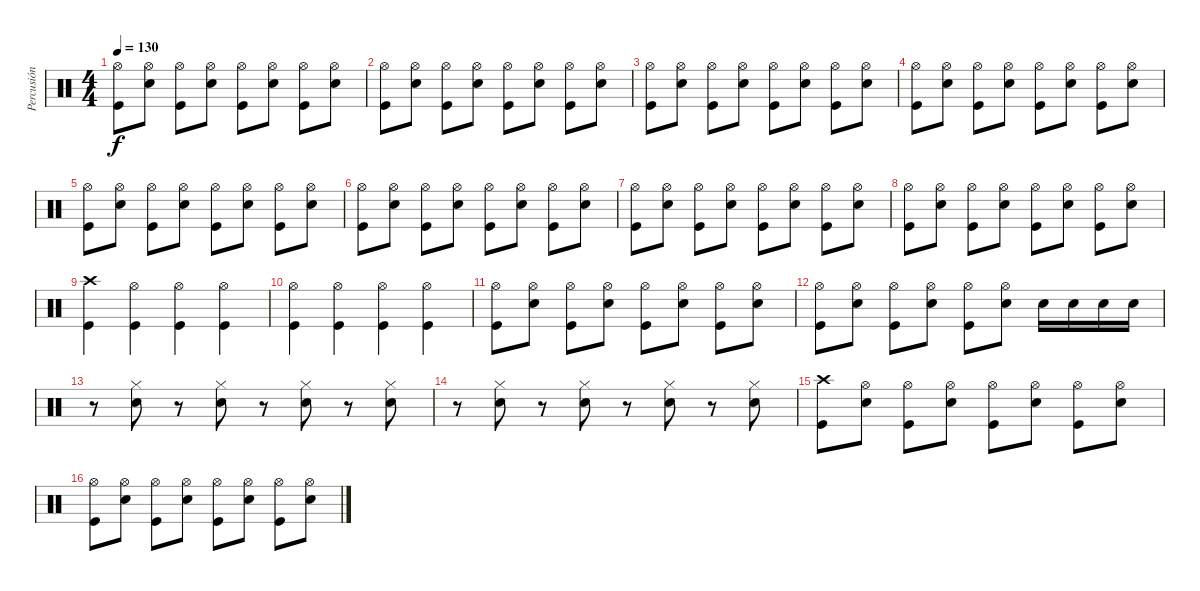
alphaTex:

\track ("Percusión" "Percusión") {instrument percussion}
\staff {score}
\articulation defaults
\ts (4 4)
\tempo 130
\clef neutral
\ks c
("Hi-Hat (open)" "Kick (hit)").8{dy f} ("Hi-Hat (open)" "Electric Snare (hit)").8 ("Hi-Hat (open)" "Kick (hit)").8 ("Hi-Hat (open)" "Electric Snare (hit)").8 ("Hi-Hat (open)" "Kick (hit)").8 ("Hi-Hat (open)" "Electric Snare (hit)").8 ("Hi-Hat (open)" "Kick (hit)").8 ("Hi-Hat (open)" "Electric Snare (hit)").8 |
("Hi-Hat (open)" "Kick (hit)").8 ("Hi-Hat (open)" "Electric Snare (hit)").8 ("Hi-Hat (open)" "Kick (hit)").8 ("Hi-Hat (open)" "Electric Snare (hit)").8 ("Hi-Hat (open)" "Kick (hit)").8 ("Hi-Hat (open)" "Electric Snare (hit)").8 ("Hi-Hat (open)" "Kick (hit)").8 ("Hi-Hat (open)" "Electric Snare (hit)").8 |
("Hi-Hat (open)" "Kick (hit)").8 ("Hi-Hat (open)" "Electric Snare (hit)").8 ("Hi-Hat (open)" "Kick (hit)").8 ("Hi-Hat (open)" "Electric Snare (hit)").8 ("Hi-Hat (open)" "Kick (hit)").8 ("Hi-Hat (open)" "Electric Snare (hit)").8 ("Hi-Hat (open)" "Kick (hit)").8 ("Hi-Hat (open)" "Electric Snare (hit)").8 |
("Hi-Hat (open)" "Kick (hit)").8 ("Hi-Hat (open)" "Electric Snare (hit)").8 ("Hi-Hat (open)" "Kick (hit)").8 ("Hi-Hat (open)" "Electric Snare (hit)").8 ("Hi-Hat (open)" "Kick (hit)").8 ("Hi-Hat (open)" "Electric Snare (hit)").8 ("Hi-Hat (open)" "Kick (hit)").8 ("Hi-Hat (open)" "Electric Snare (hit)").8 |
("Hi-Hat (open)" "Kick (hit)").8 ("Hi-Hat (open)" "Electric Snare (hit)").8 ("Hi-Hat (open)" "Kick (hit)").8 ("Hi-Hat (open)" "Electric Snare (hit)").8 ("Hi-Hat (open)" "Kick (hit)").8 ("Hi-Hat (open)" "Electric Snare (hit)").8 ("Hi-Hat (open)" "Kick (hit)").8 ("Hi-Hat (open)" "Electric Snare (hit)").8 |
("Hi-Hat (open)" "Kick (hit)").8 ("Hi-Hat (open)" "Electric Snare (hit)").8 ("Hi-Hat (open)" "Kick (hit)").8 ("Hi-Hat (open)" "Electric Snare (hit)").8 ("Hi-Hat (open)" "Kick (hit)").8 ("Hi-Hat (open)" "Electric Snare (hit)").8 ("Hi-Hat (open)" "Kick (hit)").8 ("Hi-Hat (open)" "Electric Snare (hit)").8 |
("Hi-Hat (open)" "Kick (hit)").8 ("Hi-Hat (open)" "Electric Snare (hit)").8 ("Hi-Hat (open)" "Kick (hit)").8 ("Hi-Hat (open)" "Electric Snare (hit)").8 ("Hi-Hat (open)" "Kick (hit)").8 ("Hi-Hat (open)" "Electric Snare (hit)").8 ("Hi-Hat (open)" "Kick (hit)").8 ("Hi-Hat (open)" "Electric Snare (hit)").8 |
("Hi-Hat (open)" "Kick (hit)").8 ("Hi-Hat (open)" "Electric Snare (hit)").8 ("Hi-Hat (open)" "Kick (hit)").8 ("Hi-Hat (open)" "Electric Snare (hit)").8 ("Hi-Hat (open)" "Kick (hit)").8 ("Hi-Hat (open)" "Electric Snare (hit)").8 ("Hi-Hat (open)" "Kick (hit)").8 ("Hi-Hat (open)" "Electric Snare (hit)").8 |
("Crash high (hit)" "Kick (hit)").4 ("Hi-Hat (open)" "Kick (hit)").4 ("Hi-Hat (open)" "Kick (hit)").4 ("Hi-Hat (open)" "Kick (hit)").4 |
("Hi-Hat (open)" "Kick (hit)").4 ("Hi-Hat (open)" "Kick (hit)").4 ("Hi-Hat (open)" "Kick (hit)").4 ("Hi-Hat (open)" "Kick (hit)").4 |
("Hi-Hat (open)" "Kick (hit)").8 ("Hi-Hat (open)" "Electric Snare (hit)").8 ("Hi-Hat (open)" "Kick (hit)").8 ("Hi-Hat (open)" "Electric Snare (hit)").8 ("Hi-Hat (open)" "Kick (hit)").8 ("Hi-Hat (open)" "Electric Snare (hit)").8 ("Hi-Hat (open)" "Kick (hit)").8 ("Hi-Hat (open)" "Electric Snare (hit)").8 |
("Hi-Hat (open)" "Kick (hit)").8 ("Hi-Hat (open)" "Electric Snare (hit)").8 ("Hi-Hat (open)" "Kick (hit)").8 ("Hi-Hat (open)" "Electric Snare (hit)").8 ("Hi-Hat (open)" "Kick (hit)").8 ("Hi-Hat (open)" "Electric Snare (hit)").8 "Electric Snare (hit)".16 "Electric Snare (hit)".16 "Electric Snare (hit)".16 "Electric Snare (hit)".16 |
r.8 ("Hi-Hat (closed)" "Electric Snare (hit)").8 r.8 ("Hi-Hat (closed)" "Electric Snare (hit)").8 r.8 ("Hi-Hat (closed)" "Electric Snare (hit)").8 r.8 ("Hi-Hat (closed)" "Electric Snare (hit)").8 |
r.8 ("Hi-Hat (closed)" "Electric Snare (hit)").8 r.8 ("Hi-Hat (closed)" "Electric Snare (hit)").8 r.8 ("Hi-Hat (closed)" "Electric Snare (hit)").8 r.8 ("Hi-Hat (closed)" "Electric Snare (hit)").8 |
("Crash high (hit)" "Kick (hit)").8 ("Hi-Hat (open)" "Electric Snare (hit)").8 ("Hi-Hat (open)" "Kick (hit)").8 ("Hi-Hat (open)" "Electric Snare (hit)").8 ("Hi-Hat (open)" "Kick (hit)").8 ("Hi-Hat (open)" "Electric Snare (hit)").8 ("Hi-Hat (open)" "Kick (hit)").8 ("Hi-Hat (open)" "Electric Snare (hit)").8 |
("Hi-Hat (open)" "Kick (hit)").8 ("Hi-Hat (open)" "Electric Snare (hit)").8 ("Hi-Hat (open)" "Kick (hit)").8 ("Hi-Hat (open)" "Electric Snare (hit)").8 ("Hi-Hat (open)" "Kick (hit)").8 ("Hi-Hat (open)" "Electric Snare (hit)").8 ("Hi-Hat (open)" "Kick (hit)").8 ("Hi-Hat (open)" "Electric Snare (hit)").8
